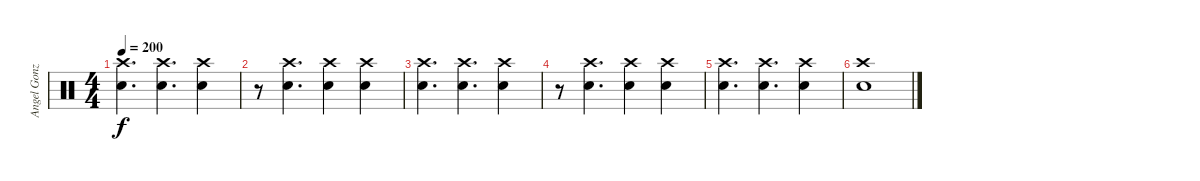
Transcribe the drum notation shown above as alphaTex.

\track ("Angel Gonzalez - Batería" "Angel Gonz") {instrument percussion}
\staff {score}
\articulation defaults
\ts (4 4)
\tempo 200
\clef neutral
\ks c
("Crash high (hit)" "Snare (hit) 2").4{d dy f} ("Crash high (hit)" "Snare (hit) 2").4{d} ("Crash high (hit)" "Snare (hit) 2").4 |
r.8 ("Crash high (hit)" "Snare (hit) 2").4{d} ("Crash high (hit)" "Snare (hit) 2").4 ("Crash high (hit)" "Snare (hit) 2").4 |
("Crash high (hit)" "Snare (hit) 2").4{d} ("Crash high (hit)" "Snare (hit) 2").4{d} ("Crash high (hit)" "Snare (hit) 2").4 |
r.8 ("Crash high (hit)" "Snare (hit) 2").4{d} ("Crash high (hit)" "Snare (hit) 2").4 ("Crash high (hit)" "Snare (hit) 2").4 |
("Crash high (hit)" "Snare (hit) 2").4{d} ("Crash high (hit)" "Snare (hit) 2").4{d} ("Crash high (hit)" "Snare (hit) 2").4 |
("Crash high (hit)" "Snare (hit) 2").1
